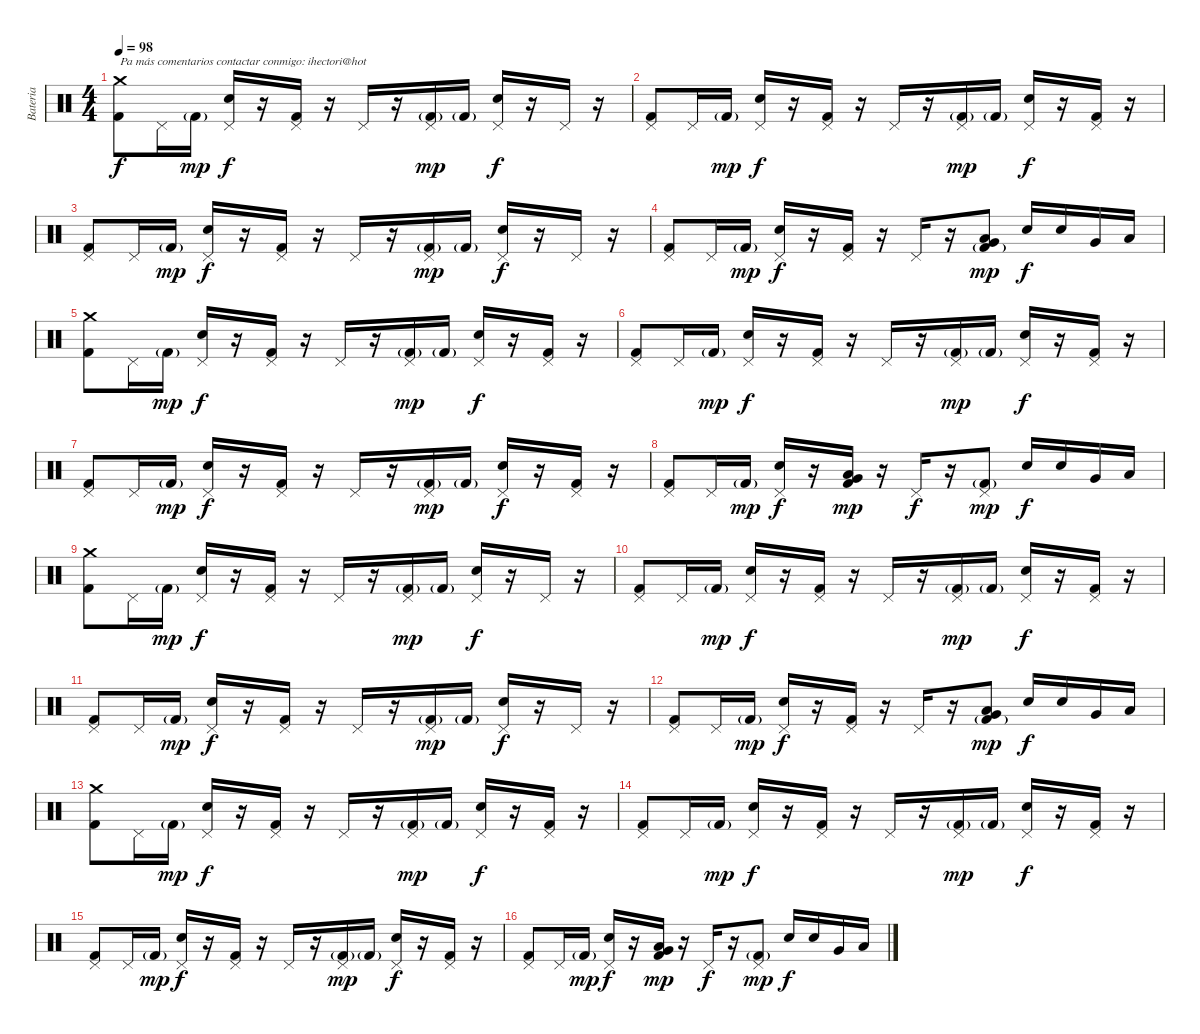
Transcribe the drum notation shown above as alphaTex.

\track ("Bateria" "Bateria") {instrument percussion}
\staff {score}
\articulation defaults
\ts (4 4)
\tempo 98
\clef neutral
\ks c
("Crash medium (hit)" "Kick (hit) 2").8{txt "Pa más comentarios contactar conmigo: ihectori@hot" dy f} "Pedal Hi-Hat (hit)".16 "Kick (hit) 2"{g}.16{dy mp} ("Pedal Hi-Hat (hit)" "Snare (hit) 2").16{dy f} r.16 ("Pedal Hi-Hat (hit)" "Kick (hit) 2").16 r.16 "Pedal Hi-Hat (hit)".16 r.16 ("Pedal Hi-Hat (hit)" "Kick (hit) 2"{g}).16{dy mp} "Kick (hit) 2"{g}.16 ("Pedal Hi-Hat (hit)" "Snare (hit) 2").16{dy f} r.16 "Pedal Hi-Hat (hit)".16 r.16 |
("Pedal Hi-Hat (hit)" "Kick (hit) 2").8 "Pedal Hi-Hat (hit)".16 "Kick (hit) 2"{g}.16{dy mp} ("Pedal Hi-Hat (hit)" "Snare (hit) 2").16{dy f} r.16 ("Pedal Hi-Hat (hit)" "Kick (hit) 2").16 r.16 "Pedal Hi-Hat (hit)".16 r.16 ("Pedal Hi-Hat (hit)" "Kick (hit) 2"{g}).16{dy mp} "Kick (hit) 2"{g}.16 ("Pedal Hi-Hat (hit)" "Snare (hit) 2").16{dy f} r.16 ("Pedal Hi-Hat (hit)" "Kick (hit) 2").16 r.16 |
("Pedal Hi-Hat (hit)" "Kick (hit) 2").8 "Pedal Hi-Hat (hit)".16 "Kick (hit) 2"{g}.16{dy mp} ("Pedal Hi-Hat (hit)" "Snare (hit) 2").16{dy f} r.16 ("Pedal Hi-Hat (hit)" "Kick (hit) 2").16 r.16 "Pedal Hi-Hat (hit)".16 r.16 ("Pedal Hi-Hat (hit)" "Kick (hit) 2"{g}).16{dy mp} "Kick (hit) 2"{g}.16 ("Pedal Hi-Hat (hit)" "Snare (hit) 2").16{dy f} r.16 "Pedal Hi-Hat (hit)".16 r.16 |
("Pedal Hi-Hat (hit)" "Kick (hit) 2").8 "Pedal Hi-Hat (hit)".16 "Kick (hit) 2"{g}.16{dy mp} ("Pedal Hi-Hat (hit)" "Snare (hit) 2").16{dy f} r.16 ("Pedal Hi-Hat (hit)" "Kick (hit) 2").16 r.16 "Pedal Hi-Hat (hit)".16 r.16 ("Low Tom (hit)" "Very Low Tom (hit)" "Kick (hit) 2"{g}).8{dy mp} "Snare (hit) 2".16{dy f} "Snare (hit) 2".16 "Very Low Tom (hit)".16 "Low Floor Tom (hit)".16 |
("Crash medium (hit)" "Kick (hit) 2").8 "Pedal Hi-Hat (hit)".16 "Kick (hit) 2"{g}.16{dy mp} ("Pedal Hi-Hat (hit)" "Snare (hit) 2").16{dy f} r.16 ("Pedal Hi-Hat (hit)" "Kick (hit) 2").16 r.16 "Pedal Hi-Hat (hit)".16 r.16 ("Pedal Hi-Hat (hit)" "Kick (hit) 2"{g}).16{dy mp} "Kick (hit) 2"{g}.16 ("Pedal Hi-Hat (hit)" "Snare (hit) 2").16{dy f} r.16 ("Pedal Hi-Hat (hit)" "Kick (hit) 2").16 r.16 |
("Pedal Hi-Hat (hit)" "Kick (hit) 2").8 "Pedal Hi-Hat (hit)".16 "Kick (hit) 2"{g}.16{dy mp} ("Pedal Hi-Hat (hit)" "Snare (hit) 2").16{dy f} r.16 ("Pedal Hi-Hat (hit)" "Kick (hit) 2").16 r.16 "Pedal Hi-Hat (hit)".16 r.16 ("Pedal Hi-Hat (hit)" "Kick (hit) 2"{g}).16{dy mp} "Kick (hit) 2"{g}.16 ("Pedal Hi-Hat (hit)" "Snare (hit) 2").16{dy f} r.16 ("Pedal Hi-Hat (hit)" "Kick (hit) 2").16 r.16 |
("Pedal Hi-Hat (hit)" "Kick (hit) 2").8 "Pedal Hi-Hat (hit)".16 "Kick (hit) 2"{g}.16{dy mp} ("Pedal Hi-Hat (hit)" "Snare (hit) 2").16{dy f} r.16 ("Pedal Hi-Hat (hit)" "Kick (hit) 2").16 r.16 "Pedal Hi-Hat (hit)".16 r.16 ("Pedal Hi-Hat (hit)" "Kick (hit) 2"{g}).16{dy mp} "Kick (hit) 2"{g}.16 ("Pedal Hi-Hat (hit)" "Snare (hit) 2").16{dy f} r.16 ("Pedal Hi-Hat (hit)" "Kick (hit) 2").16 r.16 |
("Pedal Hi-Hat (hit)" "Kick (hit) 2").8 "Pedal Hi-Hat (hit)".16 "Kick (hit) 2"{g}.16{dy mp} ("Pedal Hi-Hat (hit)" "Snare (hit) 2").16{dy f} r.16 ("Very Low Tom (hit)" "Low Floor Tom (hit)" "Kick (hit) 2").16{dy mp} r.16 "Pedal Hi-Hat (hit)".16{dy f} r.16 ("Pedal Hi-Hat (hit)" "Kick (hit) 2"{g}).8{dy mp} "Snare (hit) 2".16{dy f} "Snare (hit) 2".16 "Very Low Tom (hit)".16 "Low Floor Tom (hit)".16 |
("Crash medium (hit)" "Kick (hit) 2").8 "Pedal Hi-Hat (hit)".16 "Kick (hit) 2"{g}.16{dy mp} ("Pedal Hi-Hat (hit)" "Snare (hit) 2").16{dy f} r.16 ("Pedal Hi-Hat (hit)" "Kick (hit) 2").16 r.16 "Pedal Hi-Hat (hit)".16 r.16 ("Pedal Hi-Hat (hit)" "Kick (hit) 2"{g}).16{dy mp} "Kick (hit) 2"{g}.16 ("Pedal Hi-Hat (hit)" "Snare (hit) 2").16{dy f} r.16 "Pedal Hi-Hat (hit)".16 r.16 |
("Pedal Hi-Hat (hit)" "Kick (hit) 2").8 "Pedal Hi-Hat (hit)".16 "Kick (hit) 2"{g}.16{dy mp} ("Pedal Hi-Hat (hit)" "Snare (hit) 2").16{dy f} r.16 ("Pedal Hi-Hat (hit)" "Kick (hit) 2").16 r.16 "Pedal Hi-Hat (hit)".16 r.16 ("Pedal Hi-Hat (hit)" "Kick (hit) 2"{g}).16{dy mp} "Kick (hit) 2"{g}.16 ("Pedal Hi-Hat (hit)" "Snare (hit) 2").16{dy f} r.16 ("Pedal Hi-Hat (hit)" "Kick (hit) 2").16 r.16 |
("Pedal Hi-Hat (hit)" "Kick (hit) 2").8 "Pedal Hi-Hat (hit)".16 "Kick (hit) 2"{g}.16{dy mp} ("Pedal Hi-Hat (hit)" "Snare (hit) 2").16{dy f} r.16 ("Pedal Hi-Hat (hit)" "Kick (hit) 2").16 r.16 "Pedal Hi-Hat (hit)".16 r.16 ("Pedal Hi-Hat (hit)" "Kick (hit) 2"{g}).16{dy mp} "Kick (hit) 2"{g}.16 ("Pedal Hi-Hat (hit)" "Snare (hit) 2").16{dy f} r.16 "Pedal Hi-Hat (hit)".16 r.16 |
("Pedal Hi-Hat (hit)" "Kick (hit) 2").8 "Pedal Hi-Hat (hit)".16 "Kick (hit) 2"{g}.16{dy mp} ("Pedal Hi-Hat (hit)" "Snare (hit) 2").16{dy f} r.16 ("Pedal Hi-Hat (hit)" "Kick (hit) 2").16 r.16 "Pedal Hi-Hat (hit)".16 r.16 ("Low Tom (hit)" "Very Low Tom (hit)" "Kick (hit) 2"{g}).8{dy mp} "Snare (hit) 2".16{dy f} "Snare (hit) 2".16 "Very Low Tom (hit)".16 "Low Floor Tom (hit)".16 |
("Crash medium (hit)" "Kick (hit) 2").8 "Pedal Hi-Hat (hit)".16 "Kick (hit) 2"{g}.16{dy mp} ("Pedal Hi-Hat (hit)" "Snare (hit) 2").16{dy f} r.16 ("Pedal Hi-Hat (hit)" "Kick (hit) 2").16 r.16 "Pedal Hi-Hat (hit)".16 r.16 ("Pedal Hi-Hat (hit)" "Kick (hit) 2"{g}).16{dy mp} "Kick (hit) 2"{g}.16 ("Pedal Hi-Hat (hit)" "Snare (hit) 2").16{dy f} r.16 ("Pedal Hi-Hat (hit)" "Kick (hit) 2").16 r.16 |
("Pedal Hi-Hat (hit)" "Kick (hit) 2").8 "Pedal Hi-Hat (hit)".16 "Kick (hit) 2"{g}.16{dy mp} ("Pedal Hi-Hat (hit)" "Snare (hit) 2").16{dy f} r.16 ("Pedal Hi-Hat (hit)" "Kick (hit) 2").16 r.16 "Pedal Hi-Hat (hit)".16 r.16 ("Pedal Hi-Hat (hit)" "Kick (hit) 2"{g}).16{dy mp} "Kick (hit) 2"{g}.16 ("Pedal Hi-Hat (hit)" "Snare (hit) 2").16{dy f} r.16 ("Pedal Hi-Hat (hit)" "Kick (hit) 2").16 r.16 |
("Pedal Hi-Hat (hit)" "Kick (hit) 2").8 "Pedal Hi-Hat (hit)".16 "Kick (hit) 2"{g}.16{dy mp} ("Pedal Hi-Hat (hit)" "Snare (hit) 2").16{dy f} r.16 ("Pedal Hi-Hat (hit)" "Kick (hit) 2").16 r.16 "Pedal Hi-Hat (hit)".16 r.16 ("Pedal Hi-Hat (hit)" "Kick (hit) 2"{g}).16{dy mp} "Kick (hit) 2"{g}.16 ("Pedal Hi-Hat (hit)" "Snare (hit) 2").16{dy f} r.16 ("Pedal Hi-Hat (hit)" "Kick (hit) 2").16 r.16 |
("Pedal Hi-Hat (hit)" "Kick (hit) 2").8 "Pedal Hi-Hat (hit)".16 "Kick (hit) 2"{g}.16{dy mp} ("Pedal Hi-Hat (hit)" "Snare (hit) 2").16{dy f} r.16 ("Very Low Tom (hit)" "Low Floor Tom (hit)" "Kick (hit) 2").16{dy mp} r.16 "Pedal Hi-Hat (hit)".16{dy f} r.16 ("Pedal Hi-Hat (hit)" "Kick (hit) 2"{g}).8{dy mp} "Snare (hit) 2".16{dy f} "Snare (hit) 2".16 "Very Low Tom (hit)".16 "Low Floor Tom (hit)".16
